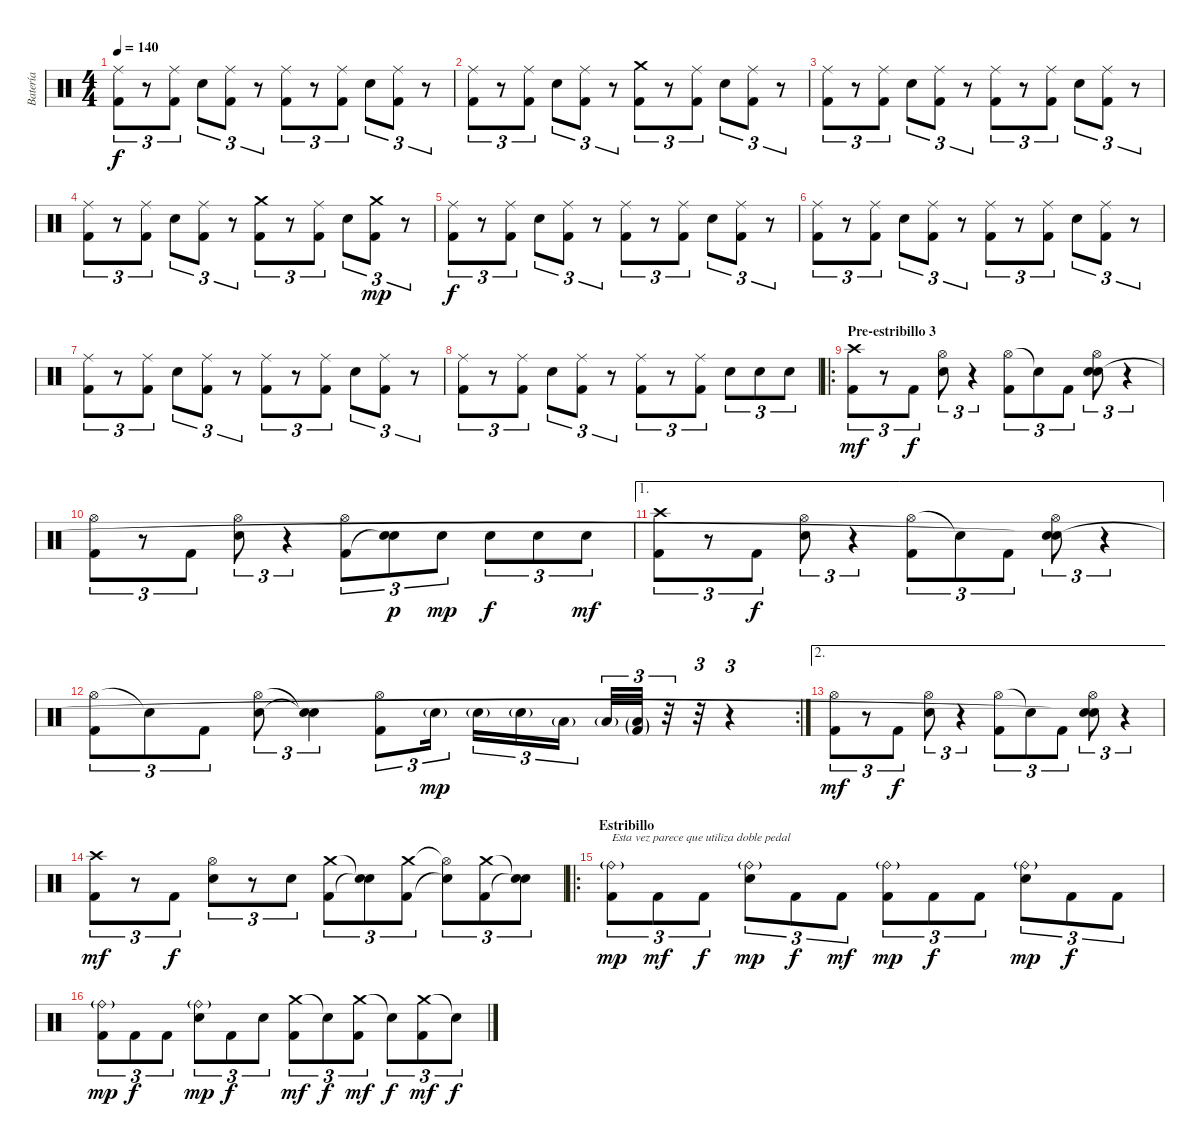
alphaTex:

\track ("Batería" "Batería") {instrument percussion}
\staff {score}
\articulation defaults
\ts (4 4)
\tempo 140
\clef neutral
\ks c
("Ride (middle)" "Kick (hit) 2").8{tu (3 2) dy f} r.8{tu (3 2)} ("Ride (middle)" "Kick (hit) 2").8{tu (3 2)} "Snare (hit) 2".8{tu (3 2)} ("Ride (middle)" "Kick (hit) 2").8{tu (3 2)} r.8{tu (3 2)} ("Ride (middle)" "Kick (hit) 2").8{tu (3 2)} r.8{tu (3 2)} ("Ride (middle)" "Kick (hit) 2").8{tu (3 2)} "Snare (hit) 2".8{tu (3 2)} ("Ride (middle)" "Kick (hit) 2").8{tu (3 2)} r.8{tu (3 2)} |
("Ride (middle)" "Kick (hit) 2").8{tu (3 2)} r.8{tu (3 2)} ("Ride (middle)" "Kick (hit) 2").8{tu (3 2)} "Snare (hit) 2".8{tu (3 2)} ("Ride (middle)" "Kick (hit) 2").8{tu (3 2)} r.8{tu (3 2)} ("Crash medium (hit)" "Kick (hit) 2").8{tu (3 2)} r.8{tu (3 2)} ("Ride (middle)" "Kick (hit) 2").8{tu (3 2)} "Snare (hit) 2".8{tu (3 2)} ("Ride (middle)" "Kick (hit) 2").8{tu (3 2)} r.8{tu (3 2)} |
("Ride (middle)" "Kick (hit) 2").8{tu (3 2)} r.8{tu (3 2)} ("Ride (middle)" "Kick (hit) 2").8{tu (3 2)} "Snare (hit) 2".8{tu (3 2)} ("Ride (middle)" "Kick (hit) 2").8{tu (3 2)} r.8{tu (3 2)} ("Ride (middle)" "Kick (hit) 2").8{tu (3 2)} r.8{tu (3 2)} ("Ride (middle)" "Kick (hit) 2").8{tu (3 2)} "Snare (hit) 2".8{tu (3 2)} ("Ride (middle)" "Kick (hit) 2").8{tu (3 2)} r.8{tu (3 2)} |
("Ride (middle)" "Kick (hit) 2").8{tu (3 2)} r.8{tu (3 2)} ("Ride (middle)" "Kick (hit) 2").8{tu (3 2)} "Snare (hit) 2".8{tu (3 2)} ("Ride (middle)" "Kick (hit) 2").8{tu (3 2)} r.8{tu (3 2)} ("Crash medium (hit)" "Kick (hit) 2").8{tu (3 2)} r.8{tu (3 2)} ("Ride (middle)" "Kick (hit) 2").8{tu (3 2)} "Snare (hit) 2".8{tu (3 2)} ("Crash medium (hit)" "Kick (hit) 2").8{tu (3 2) dy mp} r.8{tu (3 2)} |
("Ride (middle)" "Kick (hit) 2").8{tu (3 2) dy f} r.8{tu (3 2)} ("Ride (middle)" "Kick (hit) 2").8{tu (3 2)} "Snare (hit) 2".8{tu (3 2)} ("Ride (middle)" "Kick (hit) 2").8{tu (3 2)} r.8{tu (3 2)} ("Ride (middle)" "Kick (hit) 2").8{tu (3 2)} r.8{tu (3 2)} ("Ride (middle)" "Kick (hit) 2").8{tu (3 2)} "Snare (hit) 2".8{tu (3 2)} ("Ride (middle)" "Kick (hit) 2").8{tu (3 2)} r.8{tu (3 2)} |
("Ride (middle)" "Kick (hit) 2").8{tu (3 2)} r.8{tu (3 2)} ("Ride (middle)" "Kick (hit) 2").8{tu (3 2)} "Snare (hit) 2".8{tu (3 2)} ("Ride (middle)" "Kick (hit) 2").8{tu (3 2)} r.8{tu (3 2)} ("Ride (middle)" "Kick (hit) 2").8{tu (3 2)} r.8{tu (3 2)} ("Ride (middle)" "Kick (hit) 2").8{tu (3 2)} "Snare (hit) 2".8{tu (3 2)} ("Ride (middle)" "Kick (hit) 2").8{tu (3 2)} r.8{tu (3 2)} |
("Ride (middle)" "Kick (hit) 2").8{tu (3 2)} r.8{tu (3 2)} ("Ride (middle)" "Kick (hit) 2").8{tu (3 2)} "Snare (hit) 2".8{tu (3 2)} ("Ride (middle)" "Kick (hit) 2").8{tu (3 2)} r.8{tu (3 2)} ("Ride (middle)" "Kick (hit) 2").8{tu (3 2)} r.8{tu (3 2)} ("Ride (middle)" "Kick (hit) 2").8{tu (3 2)} "Snare (hit) 2".8{tu (3 2)} ("Ride (middle)" "Kick (hit) 2").8{tu (3 2)} r.8{tu (3 2)} |
("Ride (middle)" "Kick (hit) 2").8{tu (3 2)} r.8{tu (3 2)} ("Ride (middle)" "Kick (hit) 2").8{tu (3 2)} "Snare (hit) 2".8{tu (3 2)} ("Ride (middle)" "Kick (hit) 2").8{tu (3 2)} r.8{tu (3 2)} ("Ride (middle)" "Kick (hit) 2").8{tu (3 2)} r.8{tu (3 2)} ("Ride (middle)" "Kick (hit) 2").8{tu (3 2)} "Snare (hit) 2".8{tu (3 2)} "Snare (hit) 2".8{tu (3 2)} "Snare (hit) 2".8{tu (3 2)} |
\ro
\section ("" "Pre-estribillo 3")
("Crash high (hit)" "Kick (hit) 2").8{tu (3 2) dy mf} r.8{tu (3 2)} "Kick (hit) 2".8{tu (3 2) dy f} ("Hi-Hat (open)" "Snare (hit) 2").8{tu (3 2)} r.4{tu (3 2)} ("Hi-Hat (open)" "Kick (hit) 2").8{tu (3 2)} "Snare (hit)"{t}.8{tu (3 2)} "Kick (hit) 2".8{tu (3 2)} ("Hi-Hat (open)" "Snare (hit) 2" "Snare (hit)").8{tu (3 2)} r.4{tu (3 2)} |
("Hi-Hat (open)" "Kick (hit) 2").8{tu (3 2)} r.8{tu (3 2)} "Kick (hit) 2".8{tu (3 2)} ("Hi-Hat (open)" "Snare (hit) 2").8{tu (3 2)} r.4{tu (3 2)} ("Hi-Hat (open)" "Kick (hit) 2").8{tu (3 2)} ("Snare (hit) 2" "Snare (hit)"{t}).8{tu (3 2) dy p} "Snare (hit) 2".8{tu (3 2) dy mp} "Snare (hit) 2".8{tu (3 2) dy f} "Snare (hit) 2".8{tu (3 2)} "Snare (hit) 2".8{tu (3 2) dy mf} |
\ae 1
("Crash high (hit)" "Kick (hit) 2").8{tu (3 2)} r.8{tu (3 2)} "Kick (hit) 2".8{tu (3 2) dy f} ("Hi-Hat (open)" "Snare (hit) 2").8{tu (3 2)} r.4{tu (3 2)} ("Hi-Hat (open)" "Kick (hit) 2").8{tu (3 2)} "Snare (hit)"{t}.8{tu (3 2)} "Kick (hit) 2".8{tu (3 2)} ("Hi-Hat (open)" "Snare (hit) 2" "Snare (hit)"{t}).8{tu (3 2)} r.4{tu (3 2)} |
\rc 2
("Hi-Hat (open)" "Kick (hit) 2").8{tu (3 2)} "Snare (hit)"{t}.8{tu (3 2)} "Kick (hit) 2".8{tu (3 2)} ("Hi-Hat (open)" "Snare (hit) 2").8{tu (3 2)} ("Snare (hit)"{t} "Snare (hit)"{t}).4{tu (3 2)} ("Hi-Hat (open)" "Kick (hit) 2").8{tu (3 2)} "Snare (hit) 2"{g}.16{tu (3 2) dy mp} "Snare (hit) 2"{g}.16{tu (3 2)} "Snare (hit) 2"{g}.16{tu (3 2)} "Low Floor Tom (hit)"{g}.16{tu (3 2)} "Low Floor Tom (hit)"{g}.32{tu (3 2)} ("Low Floor Tom (hit)"{g} "Kick (hit) 2"{g}).32{tu (3 2)} r.32{tu (3 2)} r.32{tu (3 2)} r.4{tu (3 2)} |
\ae 2
("Hi-Hat (open)" "Kick (hit) 2").8{tu (3 2) dy mf} r.8{tu (3 2)} "Kick (hit) 2".8{tu (3 2) dy f} ("Hi-Hat (open)" "Snare (hit) 2").8{tu (3 2)} r.4{tu (3 2)} ("Hi-Hat (open)" "Kick (hit) 2").8{tu (3 2)} "Snare (hit)"{t}.8{tu (3 2)} "Kick (hit) 2".8{tu (3 2)} ("Hi-Hat (open)" "Snare (hit) 2" "Snare (hit)"{t}).8{tu (3 2)} r.4{tu (3 2)} |
("Crash high (hit)" "Kick (hit) 2").8{tu (3 2) dy mf} r.8{tu (3 2)} "Kick (hit) 2".8{tu (3 2) dy f} ("Hi-Hat (open)" "Snare (hit) 2").8{tu (3 2)} r.8{tu (3 2)} "Snare (hit) 2".8{tu (3 2)} ("Crash medium (hit)" "Kick (hit) 2").8{tu (3 2)} ("Snare (hit)"{t} "Snare (hit)"{t}).8{tu (3 2)} ("Crash medium (hit)" "Kick (hit) 2").8{tu (3 2)} ("Hi-Hat (open)"{t} "Snare (hit)"{t}).8{tu (3 2)} ("Crash medium (hit)" "Kick (hit) 2").8{tu (3 2)} ("Snare (hit)"{t} "Snare (hit)"{t}).8{tu (3 2)} |
\ro
\section ("" "Estribillo")
("Ride (bell)"{g} "Kick (hit) 2").8{tu (3 2) txt "Esta vez parece que utiliza doble pedal" dy mp} "Kick (hit) 2".8{tu (3 2) dy mf} "Kick (hit) 2".8{tu (3 2) dy f} ("Ride (bell)"{g} "Snare (hit) 2").8{tu (3 2) dy mp} "Kick (hit) 2".8{tu (3 2) dy f} "Kick (hit) 2".8{tu (3 2) dy mf} ("Ride (bell)"{g} "Kick (hit) 2").8{tu (3 2) dy mp} "Kick (hit) 2".8{tu (3 2) dy f} "Kick (hit) 2".8{tu (3 2)} ("Ride (bell)"{g} "Snare (hit) 2").8{tu (3 2) dy mp} "Kick (hit) 2".8{tu (3 2) dy f} "Kick (hit) 2".8{tu (3 2)} |
("Ride (bell)"{g} "Kick (hit) 2").8{tu (3 2) dy mp} "Kick (hit) 2".8{tu (3 2) dy f} "Kick (hit) 2".8{tu (3 2)} ("Ride (bell)"{g} "Snare (hit) 2").8{tu (3 2) dy mp} "Kick (hit) 2".8{tu (3 2) dy f} "Snare (hit) 2".8{tu (3 2)} ("Crash medium (hit)" "Kick (hit) 2").8{tu (3 2) dy mf} "Snare (hit)"{t}.8{tu (3 2) dy f} ("Crash medium (hit)" "Kick (hit) 2").8{tu (3 2) dy mf} "Snare (hit)"{t}.8{tu (3 2) dy f} ("Crash medium (hit)" "Kick (hit) 2").8{tu (3 2) dy mf} "Snare (hit)"{t}.8{tu (3 2) dy f}
